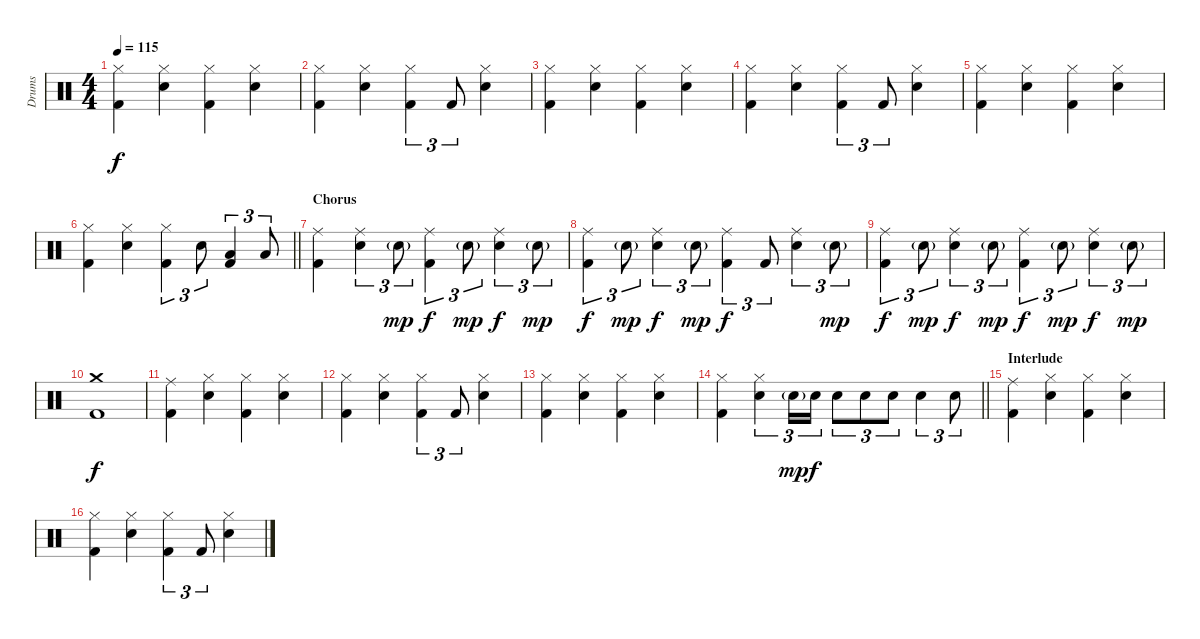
\track ("Drums" "Drums") {instrument percussion}
\staff {score}
\articulation defaults
\ts (4 4)
\tempo 115
\clef neutral
\ks c
("Hi-Hat (closed)" "Kick (hit) 2").4{dy f} ("Hi-Hat (closed)" "Electric Snare (hit)").4 ("Hi-Hat (closed)" "Kick (hit) 2").4 ("Hi-Hat (closed)" "Electric Snare (hit)").4 |
("Hi-Hat (closed)" "Kick (hit) 2").4 ("Hi-Hat (closed)" "Electric Snare (hit)").4 ("Hi-Hat (closed)" "Kick (hit) 2").4{tu (3 2)} "Kick (hit) 2".8{tu (3 2)} ("Hi-Hat (closed)" "Electric Snare (hit)").4 |
("Hi-Hat (closed)" "Kick (hit) 2").4 ("Hi-Hat (closed)" "Electric Snare (hit)").4 ("Hi-Hat (closed)" "Kick (hit) 2").4 ("Hi-Hat (closed)" "Electric Snare (hit)").4 |
("Hi-Hat (closed)" "Kick (hit) 2").4 ("Hi-Hat (closed)" "Electric Snare (hit)").4 ("Hi-Hat (closed)" "Kick (hit) 2").4{tu (3 2)} "Kick (hit) 2".8{tu (3 2)} ("Hi-Hat (closed)" "Electric Snare (hit)").4 |
("Hi-Hat (closed)" "Kick (hit) 2").4 ("Hi-Hat (closed)" "Electric Snare (hit)").4 ("Hi-Hat (closed)" "Kick (hit) 2").4 ("Hi-Hat (closed)" "Electric Snare (hit)").4 |
\barLineRight lightlight
("Hi-Hat (closed)" "Kick (hit) 2").4 ("Hi-Hat (closed)" "Electric Snare (hit)").4 ("Hi-Hat (closed)" "Kick (hit) 2").4{tu (3 2)} "Electric Snare (hit)".8{tu (3 2)} ("Low Tom (hit)" "Kick (hit) 2").4{tu (3 2)} "Low Floor Tom (hit)".8{tu (3 2)} |
\section ("" "Chorus")
("Ride (middle)" "Kick (hit) 2").4 ("Ride (middle)" "Electric Snare (hit)").4{tu (3 2)} "Electric Snare (hit)"{g}.8{tu (3 2) dy mp} ("Ride (middle)" "Kick (hit) 2").4{tu (3 2) dy f} "Electric Snare (hit)"{g}.8{tu (3 2) dy mp} ("Ride (middle)" "Electric Snare (hit)").4{tu (3 2) dy f} "Electric Snare (hit)"{g}.8{tu (3 2) dy mp} |
("Ride (middle)" "Kick (hit) 2").4{tu (3 2) dy f} "Electric Snare (hit)"{g}.8{tu (3 2) dy mp} ("Ride (middle)" "Electric Snare (hit)").4{tu (3 2) dy f} "Electric Snare (hit)"{g}.8{tu (3 2) dy mp} ("Ride (middle)" "Kick (hit) 2").4{tu (3 2) dy f} "Kick (hit) 2".8{tu (3 2)} ("Ride (middle)" "Electric Snare (hit)").4{tu (3 2)} "Electric Snare (hit)"{g}.8{tu (3 2) dy mp} |
("Ride (middle)" "Kick (hit) 2").4{tu (3 2) dy f} "Electric Snare (hit)"{g}.8{tu (3 2) dy mp} ("Ride (middle)" "Electric Snare (hit)").4{tu (3 2) dy f} "Electric Snare (hit)"{g}.8{tu (3 2) dy mp} ("Ride (middle)" "Kick (hit) 2").4{tu (3 2) dy f} "Electric Snare (hit)"{g}.8{tu (3 2) dy mp} ("Ride (middle)" "Electric Snare (hit)").4{tu (3 2) dy f} "Electric Snare (hit)"{g}.8{tu (3 2) dy mp} |
("Crash medium (hit)" "Kick (hit) 2").1{dy f} |
("Ride (middle)" "Kick (hit) 2").4 ("Hi-Hat (closed)" "Electric Snare (hit)").4 ("Hi-Hat (closed)" "Kick (hit) 2").4 ("Hi-Hat (closed)" "Electric Snare (hit)").4 |
("Hi-Hat (closed)" "Kick (hit) 2").4 ("Hi-Hat (closed)" "Electric Snare (hit)").4 ("Hi-Hat (closed)" "Kick (hit) 2").4{tu (3 2)} "Kick (hit) 2".8{tu (3 2)} ("Hi-Hat (closed)" "Electric Snare (hit)").4 |
("Hi-Hat (closed)" "Kick (hit) 2").4 ("Hi-Hat (closed)" "Electric Snare (hit)").4 ("Hi-Hat (closed)" "Kick (hit) 2").4 ("Hi-Hat (closed)" "Electric Snare (hit)").4 |
\barLineRight lightlight
("Hi-Hat (closed)" "Kick (hit) 2").4 ("Hi-Hat (closed)" "Electric Snare (hit)").4{tu (3 2)} "Electric Snare (hit)"{g}.16{tu (3 2) dy mp} "Electric Snare (hit)".16{tu (3 2) dy f} "Electric Snare (hit)".8{tu (3 2)} "Electric Snare (hit)".8{tu (3 2)} "Electric Snare (hit)".8{tu (3 2)} "Electric Snare (hit)".4{tu (3 2)} "Electric Snare (hit)".8{tu (3 2)} |
\section ("" "Interlude")
("Ride (middle)" "Kick (hit) 2").4 ("Hi-Hat (closed)" "Electric Snare (hit)").4 ("Hi-Hat (closed)" "Kick (hit) 2").4 ("Hi-Hat (closed)" "Electric Snare (hit)").4 |
("Hi-Hat (closed)" "Kick (hit) 2").4 ("Hi-Hat (closed)" "Electric Snare (hit)").4 ("Hi-Hat (closed)" "Kick (hit) 2").4{tu (3 2)} "Kick (hit) 2".8{tu (3 2)} ("Hi-Hat (closed)" "Electric Snare (hit)").4
